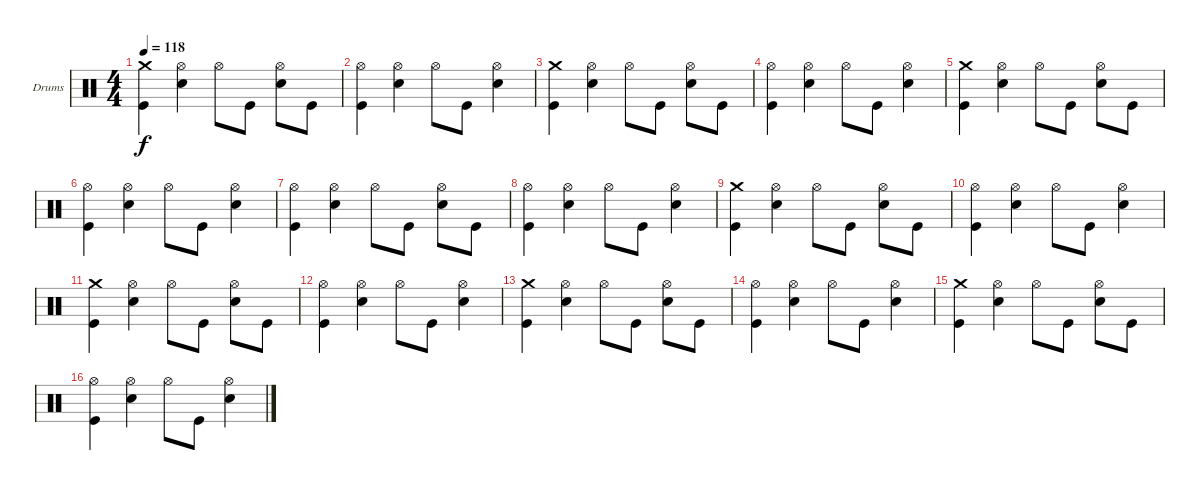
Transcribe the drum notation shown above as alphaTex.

\bracketExtendMode groupsimilarinstruments
\firstSystemTrackNameOrientation horizontal
\otherSystemsTrackNameOrientation horizontal
\track ("Drumkit" "Drums") {instrument percussion}
\staff {score}
\articulation defaults
\ts (4 4)
\tempo 118
\clef neutral
\ks c
("Crash medium (hit)" "Kick (hit)").4{dy f} ("Hi-Hat (open)" "Snare (hit) 2").4 "Hi-Hat (open)".8 "Kick (hit)".8 ("Hi-Hat (open)" "Snare (hit) 2").8 "Kick (hit)".8 |
("Hi-Hat (open)" "Kick (hit)").4 ("Hi-Hat (open)" "Snare (hit) 2").4 "Hi-Hat (open)".8 "Kick (hit)".8 ("Hi-Hat (open)" "Snare (hit) 2").4 |
("Crash medium (hit)" "Kick (hit)").4 ("Hi-Hat (open)" "Snare (hit) 2").4 "Hi-Hat (open)".8 "Kick (hit)".8 ("Hi-Hat (open)" "Snare (hit) 2").8 "Kick (hit)".8 |
("Hi-Hat (open)" "Kick (hit)").4 ("Hi-Hat (open)" "Snare (hit) 2").4 "Hi-Hat (open)".8 "Kick (hit)".8 ("Hi-Hat (open)" "Snare (hit) 2").4 |
("Crash medium (hit)" "Kick (hit)").4 ("Hi-Hat (open)" "Snare (hit) 2").4 "Hi-Hat (open)".8 "Kick (hit)".8 ("Hi-Hat (open)" "Snare (hit) 2").8 "Kick (hit)".8 |
("Hi-Hat (open)" "Kick (hit)").4 ("Hi-Hat (open)" "Snare (hit) 2").4 "Hi-Hat (open)".8 "Kick (hit)".8 ("Hi-Hat (open)" "Snare (hit) 2").4 |
("Hi-Hat (open)" "Kick (hit)").4 ("Hi-Hat (open)" "Snare (hit) 2").4 "Hi-Hat (open)".8 "Kick (hit)".8 ("Hi-Hat (open)" "Snare (hit) 2").8 "Kick (hit)".8 |
("Hi-Hat (open)" "Kick (hit)").4 ("Hi-Hat (open)" "Snare (hit) 2").4 "Hi-Hat (open)".8 "Kick (hit)".8 ("Hi-Hat (open)" "Snare (hit) 2").4 |
("Crash medium (hit)" "Kick (hit)").4 ("Hi-Hat (open)" "Snare (hit) 2").4 "Hi-Hat (open)".8 "Kick (hit)".8 ("Hi-Hat (open)" "Snare (hit) 2").8 "Kick (hit)".8 |
("Hi-Hat (open)" "Kick (hit)").4 ("Hi-Hat (open)" "Snare (hit) 2").4 "Hi-Hat (open)".8 "Kick (hit)".8 ("Hi-Hat (open)" "Snare (hit) 2").4 |
("Crash medium (hit)" "Kick (hit)").4 ("Hi-Hat (open)" "Snare (hit) 2").4 "Hi-Hat (open)".8 "Kick (hit)".8 ("Hi-Hat (open)" "Snare (hit) 2").8 "Kick (hit)".8 |
("Hi-Hat (open)" "Kick (hit)").4 ("Hi-Hat (open)" "Snare (hit) 2").4 "Hi-Hat (open)".8 "Kick (hit)".8 ("Hi-Hat (open)" "Snare (hit) 2").4 |
("Crash medium (hit)" "Kick (hit)").4 ("Hi-Hat (open)" "Snare (hit) 2").4 "Hi-Hat (open)".8 "Kick (hit)".8 ("Hi-Hat (open)" "Snare (hit) 2").8 "Kick (hit)".8 |
("Hi-Hat (open)" "Kick (hit)").4 ("Hi-Hat (open)" "Snare (hit) 2").4 "Hi-Hat (open)".8 "Kick (hit)".8 ("Hi-Hat (open)" "Snare (hit) 2").4 |
("Crash medium (hit)" "Kick (hit)").4 ("Hi-Hat (open)" "Snare (hit) 2").4 "Hi-Hat (open)".8 "Kick (hit)".8 ("Hi-Hat (open)" "Snare (hit) 2").8 "Kick (hit)".8 |
("Hi-Hat (open)" "Kick (hit)").4 ("Hi-Hat (open)" "Snare (hit) 2").4 "Hi-Hat (open)".8 "Kick (hit)".8 ("Hi-Hat (open)" "Snare (hit) 2").4
